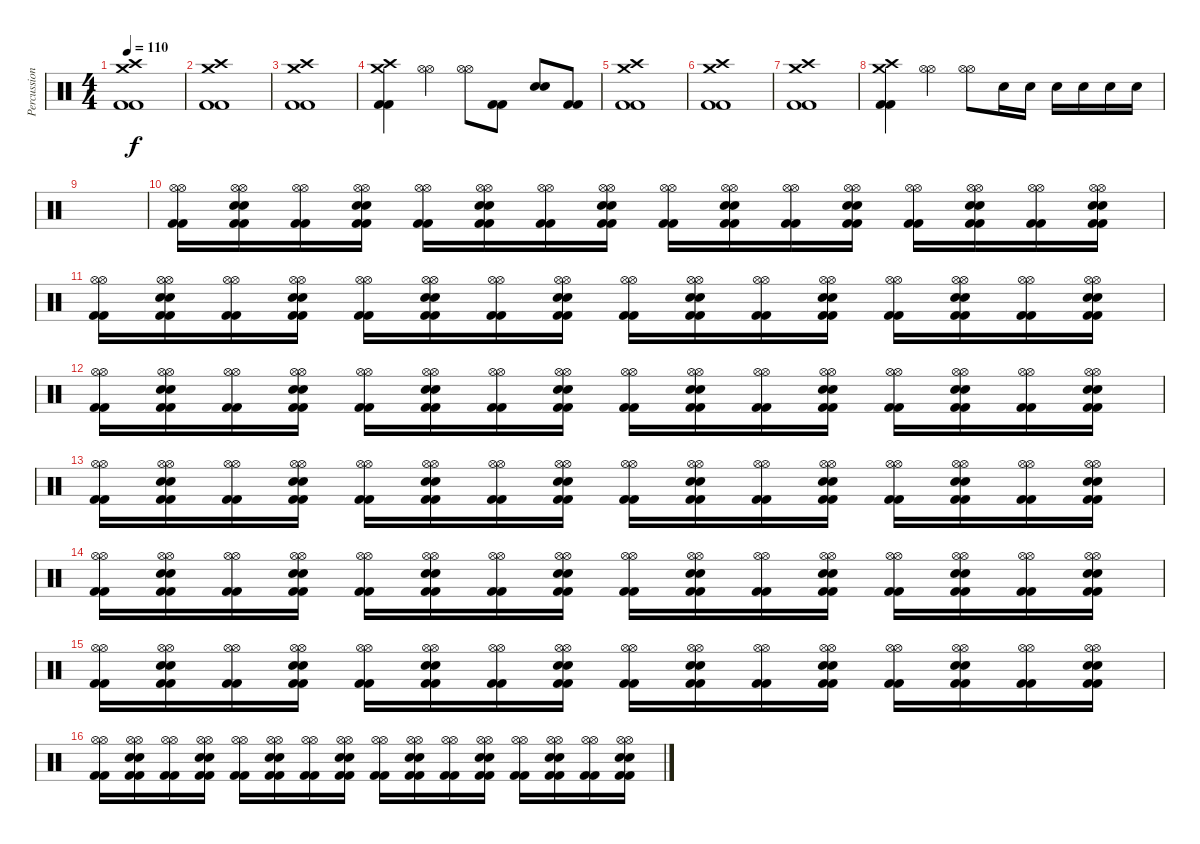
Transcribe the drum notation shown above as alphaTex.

\track ("Percussion" "Percussion") {instrument percussion}
\staff {score}
\articulation defaults
\ts (4 4)
\tempo 110
\clef neutral
\ks c
("Crash high (hit)" "Crash medium (hit)" "Kick (hit) 2" "Kick (hit) 2").1{dy f} |
("Crash high (hit)" "Crash medium (hit)" "Kick (hit) 2" "Kick (hit) 2").1 |
("Crash high (hit)" "Crash medium (hit)" "Kick (hit) 2" "Kick (hit) 2").1 |
("Crash high (hit)" "Crash medium (hit)" "Kick (hit) 2" "Kick (hit) 2").4 ("Hi-Hat (open)" "Hi-Hat (open)").4 ("Hi-Hat (open)" "Hi-Hat (open)").8 ("Kick (hit) 2" "Kick (hit) 2").8 ("Electric Snare (hit)" "Electric Snare (hit)").8 ("Kick (hit) 2" "Kick (hit) 2").8 |
("Crash high (hit)" "Crash medium (hit)" "Kick (hit) 2" "Kick (hit) 2").1 |
("Crash high (hit)" "Crash medium (hit)" "Kick (hit) 2" "Kick (hit) 2").1 |
("Crash high (hit)" "Crash medium (hit)" "Kick (hit) 2" "Kick (hit) 2").1 |
("Crash high (hit)" "Crash medium (hit)" "Kick (hit) 2" "Kick (hit) 2").4 ("Hi-Hat (open)" "Hi-Hat (open)").4 ("Hi-Hat (open)" "Hi-Hat (open)").8 "Electric Snare (hit)".16 "Electric Snare (hit)".16 "Electric Snare (hit)".16 "Electric Snare (hit)".16 "Electric Snare (hit)".16 "Electric Snare (hit)".16 |
|
("Hi-Hat (open)" "Hi-Hat (open)" "Kick (hit) 2" "Kick (hit) 2").16 ("Hi-Hat (open)" "Hi-Hat (open)" "Electric Snare (hit)" "Electric Snare (hit)" "Kick (hit) 2" "Kick (hit) 2").16 ("Hi-Hat (open)" "Hi-Hat (open)" "Kick (hit) 2" "Kick (hit) 2").16 ("Hi-Hat (open)" "Hi-Hat (open)" "Electric Snare (hit)" "Electric Snare (hit)" "Kick (hit) 2" "Kick (hit) 2").16 ("Hi-Hat (open)" "Hi-Hat (open)" "Kick (hit) 2" "Kick (hit) 2").16 ("Hi-Hat (open)" "Hi-Hat (open)" "Electric Snare (hit)" "Electric Snare (hit)" "Kick (hit) 2" "Kick (hit) 2").16 ("Hi-Hat (open)" "Hi-Hat (open)" "Kick (hit) 2" "Kick (hit) 2").16 ("Hi-Hat (open)" "Hi-Hat (open)" "Electric Snare (hit)" "Electric Snare (hit)" "Kick (hit) 2" "Kick (hit) 2").16 ("Hi-Hat (open)" "Hi-Hat (open)" "Kick (hit) 2" "Kick (hit) 2").16 ("Hi-Hat (open)" "Hi-Hat (open)" "Electric Snare (hit)" "Electric Snare (hit)" "Kick (hit) 2" "Kick (hit) 2").16 ("Hi-Hat (open)" "Hi-Hat (open)" "Kick (hit) 2" "Kick (hit) 2").16 ("Hi-Hat (open)" "Hi-Hat (open)" "Electric Snare (hit)" "Electric Snare (hit)" "Kick (hit) 2" "Kick (hit) 2").16 ("Hi-Hat (open)" "Hi-Hat (open)" "Kick (hit) 2" "Kick (hit) 2").16 ("Hi-Hat (open)" "Hi-Hat (open)" "Electric Snare (hit)" "Electric Snare (hit)" "Kick (hit) 2" "Kick (hit) 2").16 ("Hi-Hat (open)" "Hi-Hat (open)" "Kick (hit) 2" "Kick (hit) 2").16 ("Hi-Hat (open)" "Hi-Hat (open)" "Electric Snare (hit)" "Electric Snare (hit)" "Kick (hit) 2" "Kick (hit) 2").16 |
("Hi-Hat (open)" "Hi-Hat (open)" "Kick (hit) 2" "Kick (hit) 2").16 ("Hi-Hat (open)" "Hi-Hat (open)" "Electric Snare (hit)" "Electric Snare (hit)" "Kick (hit) 2" "Kick (hit) 2").16 ("Hi-Hat (open)" "Hi-Hat (open)" "Kick (hit) 2" "Kick (hit) 2").16 ("Hi-Hat (open)" "Hi-Hat (open)" "Electric Snare (hit)" "Electric Snare (hit)" "Kick (hit) 2" "Kick (hit) 2").16 ("Hi-Hat (open)" "Hi-Hat (open)" "Kick (hit) 2" "Kick (hit) 2").16 ("Hi-Hat (open)" "Hi-Hat (open)" "Electric Snare (hit)" "Electric Snare (hit)" "Kick (hit) 2" "Kick (hit) 2").16 ("Hi-Hat (open)" "Hi-Hat (open)" "Kick (hit) 2" "Kick (hit) 2").16 ("Hi-Hat (open)" "Hi-Hat (open)" "Electric Snare (hit)" "Electric Snare (hit)" "Kick (hit) 2" "Kick (hit) 2").16 ("Hi-Hat (open)" "Hi-Hat (open)" "Kick (hit) 2" "Kick (hit) 2").16 ("Hi-Hat (open)" "Hi-Hat (open)" "Electric Snare (hit)" "Electric Snare (hit)" "Kick (hit) 2" "Kick (hit) 2").16 ("Hi-Hat (open)" "Hi-Hat (open)" "Kick (hit) 2" "Kick (hit) 2").16 ("Hi-Hat (open)" "Hi-Hat (open)" "Electric Snare (hit)" "Electric Snare (hit)" "Kick (hit) 2" "Kick (hit) 2").16 ("Hi-Hat (open)" "Hi-Hat (open)" "Kick (hit) 2" "Kick (hit) 2").16 ("Hi-Hat (open)" "Hi-Hat (open)" "Electric Snare (hit)" "Electric Snare (hit)" "Kick (hit) 2" "Kick (hit) 2").16 ("Hi-Hat (open)" "Hi-Hat (open)" "Kick (hit) 2" "Kick (hit) 2").16 ("Hi-Hat (open)" "Hi-Hat (open)" "Electric Snare (hit)" "Electric Snare (hit)" "Kick (hit) 2" "Kick (hit) 2").16 |
("Hi-Hat (open)" "Hi-Hat (open)" "Kick (hit) 2" "Kick (hit) 2").16 ("Hi-Hat (open)" "Hi-Hat (open)" "Electric Snare (hit)" "Electric Snare (hit)" "Kick (hit) 2" "Kick (hit) 2").16 ("Hi-Hat (open)" "Hi-Hat (open)" "Kick (hit) 2" "Kick (hit) 2").16 ("Hi-Hat (open)" "Hi-Hat (open)" "Electric Snare (hit)" "Electric Snare (hit)" "Kick (hit) 2" "Kick (hit) 2").16 ("Hi-Hat (open)" "Hi-Hat (open)" "Kick (hit) 2" "Kick (hit) 2").16 ("Hi-Hat (open)" "Hi-Hat (open)" "Electric Snare (hit)" "Electric Snare (hit)" "Kick (hit) 2" "Kick (hit) 2").16 ("Hi-Hat (open)" "Hi-Hat (open)" "Kick (hit) 2" "Kick (hit) 2").16 ("Hi-Hat (open)" "Hi-Hat (open)" "Electric Snare (hit)" "Electric Snare (hit)" "Kick (hit) 2" "Kick (hit) 2").16 ("Hi-Hat (open)" "Hi-Hat (open)" "Kick (hit) 2" "Kick (hit) 2").16 ("Hi-Hat (open)" "Hi-Hat (open)" "Electric Snare (hit)" "Electric Snare (hit)" "Kick (hit) 2" "Kick (hit) 2").16 ("Hi-Hat (open)" "Hi-Hat (open)" "Kick (hit) 2" "Kick (hit) 2").16 ("Hi-Hat (open)" "Hi-Hat (open)" "Electric Snare (hit)" "Electric Snare (hit)" "Kick (hit) 2" "Kick (hit) 2").16 ("Hi-Hat (open)" "Hi-Hat (open)" "Kick (hit) 2" "Kick (hit) 2").16 ("Hi-Hat (open)" "Hi-Hat (open)" "Electric Snare (hit)" "Electric Snare (hit)" "Kick (hit) 2" "Kick (hit) 2").16 ("Hi-Hat (open)" "Hi-Hat (open)" "Kick (hit) 2" "Kick (hit) 2").16 ("Hi-Hat (open)" "Hi-Hat (open)" "Electric Snare (hit)" "Electric Snare (hit)" "Kick (hit) 2" "Kick (hit) 2").16 |
("Hi-Hat (open)" "Hi-Hat (open)" "Kick (hit) 2" "Kick (hit) 2").16 ("Hi-Hat (open)" "Hi-Hat (open)" "Electric Snare (hit)" "Electric Snare (hit)" "Kick (hit) 2" "Kick (hit) 2").16 ("Hi-Hat (open)" "Hi-Hat (open)" "Kick (hit) 2" "Kick (hit) 2").16 ("Hi-Hat (open)" "Hi-Hat (open)" "Electric Snare (hit)" "Electric Snare (hit)" "Kick (hit) 2" "Kick (hit) 2").16 ("Hi-Hat (open)" "Hi-Hat (open)" "Kick (hit) 2" "Kick (hit) 2").16 ("Hi-Hat (open)" "Hi-Hat (open)" "Electric Snare (hit)" "Electric Snare (hit)" "Kick (hit) 2" "Kick (hit) 2").16 ("Hi-Hat (open)" "Hi-Hat (open)" "Kick (hit) 2" "Kick (hit) 2").16 ("Hi-Hat (open)" "Hi-Hat (open)" "Electric Snare (hit)" "Electric Snare (hit)" "Kick (hit) 2" "Kick (hit) 2").16 ("Hi-Hat (open)" "Hi-Hat (open)" "Kick (hit) 2" "Kick (hit) 2").16 ("Hi-Hat (open)" "Hi-Hat (open)" "Electric Snare (hit)" "Electric Snare (hit)" "Kick (hit) 2" "Kick (hit) 2").16 ("Hi-Hat (open)" "Hi-Hat (open)" "Kick (hit) 2" "Kick (hit) 2").16 ("Hi-Hat (open)" "Hi-Hat (open)" "Electric Snare (hit)" "Electric Snare (hit)" "Kick (hit) 2" "Kick (hit) 2").16 ("Hi-Hat (open)" "Hi-Hat (open)" "Kick (hit) 2" "Kick (hit) 2").16 ("Hi-Hat (open)" "Hi-Hat (open)" "Electric Snare (hit)" "Electric Snare (hit)" "Kick (hit) 2" "Kick (hit) 2").16 ("Hi-Hat (open)" "Hi-Hat (open)" "Kick (hit) 2" "Kick (hit) 2").16 ("Hi-Hat (open)" "Hi-Hat (open)" "Electric Snare (hit)" "Electric Snare (hit)" "Kick (hit) 2" "Kick (hit) 2").16 |
("Hi-Hat (open)" "Hi-Hat (open)" "Kick (hit) 2" "Kick (hit) 2").16 ("Hi-Hat (open)" "Hi-Hat (open)" "Electric Snare (hit)" "Electric Snare (hit)" "Kick (hit) 2" "Kick (hit) 2").16 ("Hi-Hat (open)" "Hi-Hat (open)" "Kick (hit) 2" "Kick (hit) 2").16 ("Hi-Hat (open)" "Hi-Hat (open)" "Electric Snare (hit)" "Electric Snare (hit)" "Kick (hit) 2" "Kick (hit) 2").16 ("Hi-Hat (open)" "Hi-Hat (open)" "Kick (hit) 2" "Kick (hit) 2").16 ("Hi-Hat (open)" "Hi-Hat (open)" "Electric Snare (hit)" "Electric Snare (hit)" "Kick (hit) 2" "Kick (hit) 2").16 ("Hi-Hat (open)" "Hi-Hat (open)" "Kick (hit) 2" "Kick (hit) 2").16 ("Hi-Hat (open)" "Hi-Hat (open)" "Electric Snare (hit)" "Electric Snare (hit)" "Kick (hit) 2" "Kick (hit) 2").16 ("Hi-Hat (open)" "Hi-Hat (open)" "Kick (hit) 2" "Kick (hit) 2").16 ("Hi-Hat (open)" "Hi-Hat (open)" "Electric Snare (hit)" "Electric Snare (hit)" "Kick (hit) 2" "Kick (hit) 2").16 ("Hi-Hat (open)" "Hi-Hat (open)" "Kick (hit) 2" "Kick (hit) 2").16 ("Hi-Hat (open)" "Hi-Hat (open)" "Electric Snare (hit)" "Electric Snare (hit)" "Kick (hit) 2" "Kick (hit) 2").16 ("Hi-Hat (open)" "Hi-Hat (open)" "Kick (hit) 2" "Kick (hit) 2").16 ("Hi-Hat (open)" "Hi-Hat (open)" "Electric Snare (hit)" "Electric Snare (hit)" "Kick (hit) 2" "Kick (hit) 2").16 ("Hi-Hat (open)" "Hi-Hat (open)" "Kick (hit) 2" "Kick (hit) 2").16 ("Hi-Hat (open)" "Hi-Hat (open)" "Electric Snare (hit)" "Electric Snare (hit)" "Kick (hit) 2" "Kick (hit) 2").16 |
("Hi-Hat (open)" "Hi-Hat (open)" "Kick (hit) 2" "Kick (hit) 2").16 ("Hi-Hat (open)" "Hi-Hat (open)" "Electric Snare (hit)" "Electric Snare (hit)" "Kick (hit) 2" "Kick (hit) 2").16 ("Hi-Hat (open)" "Hi-Hat (open)" "Kick (hit) 2" "Kick (hit) 2").16 ("Hi-Hat (open)" "Hi-Hat (open)" "Electric Snare (hit)" "Electric Snare (hit)" "Kick (hit) 2" "Kick (hit) 2").16 ("Hi-Hat (open)" "Hi-Hat (open)" "Kick (hit) 2" "Kick (hit) 2").16 ("Hi-Hat (open)" "Hi-Hat (open)" "Electric Snare (hit)" "Electric Snare (hit)" "Kick (hit) 2" "Kick (hit) 2").16 ("Hi-Hat (open)" "Hi-Hat (open)" "Kick (hit) 2" "Kick (hit) 2").16 ("Hi-Hat (open)" "Hi-Hat (open)" "Electric Snare (hit)" "Electric Snare (hit)" "Kick (hit) 2" "Kick (hit) 2").16 ("Hi-Hat (open)" "Hi-Hat (open)" "Kick (hit) 2" "Kick (hit) 2").16 ("Hi-Hat (open)" "Hi-Hat (open)" "Electric Snare (hit)" "Electric Snare (hit)" "Kick (hit) 2" "Kick (hit) 2").16 ("Hi-Hat (open)" "Hi-Hat (open)" "Kick (hit) 2" "Kick (hit) 2").16 ("Hi-Hat (open)" "Hi-Hat (open)" "Electric Snare (hit)" "Electric Snare (hit)" "Kick (hit) 2" "Kick (hit) 2").16 ("Hi-Hat (open)" "Hi-Hat (open)" "Kick (hit) 2" "Kick (hit) 2").16 ("Hi-Hat (open)" "Hi-Hat (open)" "Electric Snare (hit)" "Electric Snare (hit)" "Kick (hit) 2" "Kick (hit) 2").16 ("Hi-Hat (open)" "Hi-Hat (open)" "Kick (hit) 2" "Kick (hit) 2").16 ("Hi-Hat (open)" "Hi-Hat (open)" "Electric Snare (hit)" "Electric Snare (hit)" "Kick (hit) 2" "Kick (hit) 2").16 |
("Hi-Hat (open)" "Hi-Hat (open)" "Kick (hit) 2" "Kick (hit) 2").16 ("Hi-Hat (open)" "Hi-Hat (open)" "Electric Snare (hit)" "Electric Snare (hit)" "Kick (hit) 2" "Kick (hit) 2").16 ("Hi-Hat (open)" "Hi-Hat (open)" "Kick (hit) 2" "Kick (hit) 2").16 ("Hi-Hat (open)" "Hi-Hat (open)" "Electric Snare (hit)" "Electric Snare (hit)" "Kick (hit) 2" "Kick (hit) 2").16 ("Hi-Hat (open)" "Hi-Hat (open)" "Kick (hit) 2" "Kick (hit) 2").16 ("Hi-Hat (open)" "Hi-Hat (open)" "Electric Snare (hit)" "Electric Snare (hit)" "Kick (hit) 2" "Kick (hit) 2").16 ("Hi-Hat (open)" "Hi-Hat (open)" "Kick (hit) 2" "Kick (hit) 2").16 ("Hi-Hat (open)" "Hi-Hat (open)" "Electric Snare (hit)" "Electric Snare (hit)" "Kick (hit) 2" "Kick (hit) 2").16 ("Hi-Hat (open)" "Hi-Hat (open)" "Kick (hit) 2" "Kick (hit) 2").16 ("Hi-Hat (open)" "Hi-Hat (open)" "Electric Snare (hit)" "Electric Snare (hit)" "Kick (hit) 2" "Kick (hit) 2").16 ("Hi-Hat (open)" "Hi-Hat (open)" "Kick (hit) 2" "Kick (hit) 2").16 ("Hi-Hat (open)" "Hi-Hat (open)" "Electric Snare (hit)" "Electric Snare (hit)" "Kick (hit) 2" "Kick (hit) 2").16 ("Hi-Hat (open)" "Hi-Hat (open)" "Kick (hit) 2" "Kick (hit) 2").16 ("Hi-Hat (open)" "Hi-Hat (open)" "Electric Snare (hit)" "Electric Snare (hit)" "Kick (hit) 2" "Kick (hit) 2").16 ("Hi-Hat (open)" "Hi-Hat (open)" "Kick (hit) 2" "Kick (hit) 2").16 ("Hi-Hat (open)" "Hi-Hat (open)" "Electric Snare (hit)" "Electric Snare (hit)" "Kick (hit) 2" "Kick (hit) 2").16
